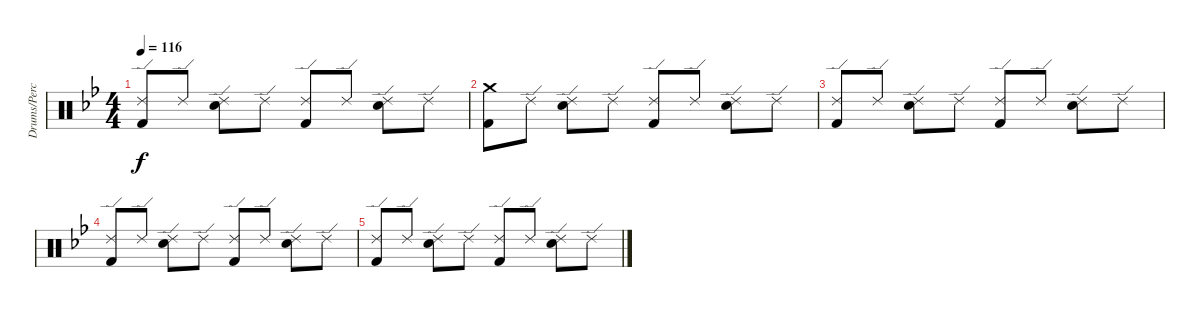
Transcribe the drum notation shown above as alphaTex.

\track ("Drums/Percussion (Bengerg)" "Drums/Perc") {instrument percussion}
\staff {score}
\articulation defaults
\ts (4 4)
\tempo 116
\clef neutral
\ks bb
("Ride (edge) 2" "Kick (hit) 2").8{dy f} "Ride (edge) 2".8 ("Ride (edge) 2" "Electric Snare (hit)").8 "Ride (edge) 2".8 ("Ride (edge) 2" "Kick (hit) 2").8 "Ride (edge) 2".8 ("Ride (edge) 2" "Electric Snare (hit)").8 "Ride (edge) 2".8 |
("Crash medium (hit)" "Kick (hit) 2").8 "Ride (edge) 2".8 ("Ride (edge) 2" "Electric Snare (hit)").8 "Ride (edge) 2".8 ("Ride (edge) 2" "Kick (hit) 2").8 "Ride (edge) 2".8 ("Ride (edge) 2" "Electric Snare (hit)").8 "Ride (edge) 2".8 |
("Ride (edge) 2" "Kick (hit) 2").8 "Ride (edge) 2".8 ("Ride (edge) 2" "Electric Snare (hit)").8 "Ride (edge) 2".8 ("Ride (edge) 2" "Kick (hit) 2").8 "Ride (edge) 2".8 ("Ride (edge) 2" "Electric Snare (hit)").8 "Ride (edge) 2".8 |
("Ride (edge) 2" "Kick (hit) 2").8 "Ride (edge) 2".8 ("Ride (edge) 2" "Electric Snare (hit)").8 "Ride (edge) 2".8 ("Ride (edge) 2" "Kick (hit) 2").8 "Ride (edge) 2".8 ("Ride (edge) 2" "Electric Snare (hit)").8 "Ride (edge) 2".8 |
("Ride (edge) 2" "Kick (hit) 2").8 "Ride (edge) 2".8 ("Ride (edge) 2" "Electric Snare (hit)").8 "Ride (edge) 2".8 ("Ride (edge) 2" "Kick (hit) 2").8 "Ride (edge) 2".8 ("Ride (edge) 2" "Electric Snare (hit)").8 "Ride (edge) 2".8
